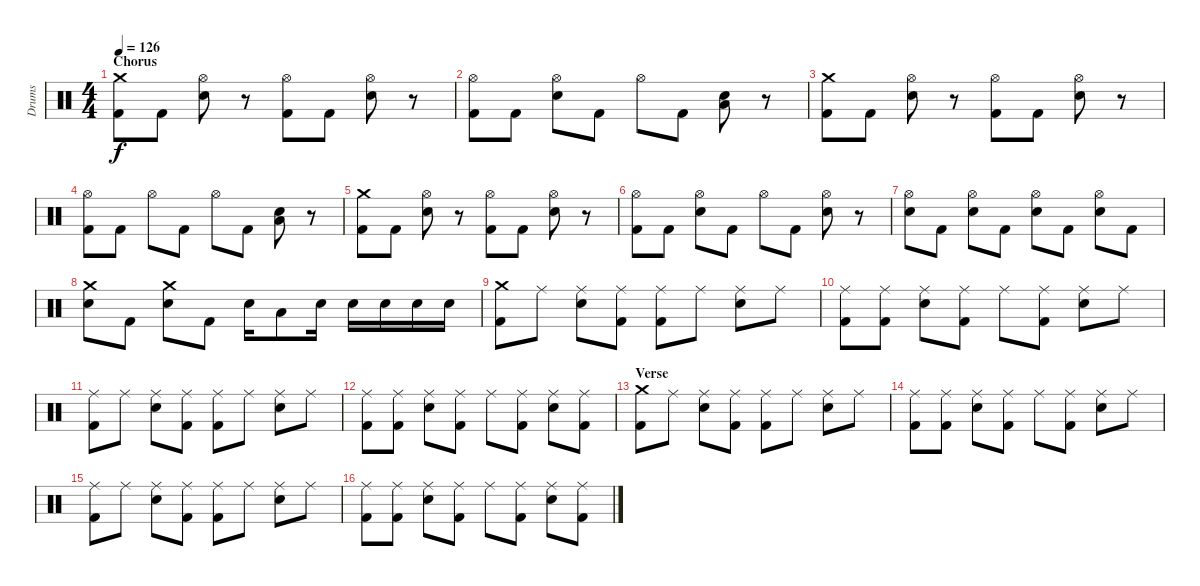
\track ("Drums" "Drums") {instrument percussion}
\staff {score}
\articulation defaults
\ts (4 4)
\section ("" "Chorus")
\tempo 126
\clef neutral
\ks c
("Crash medium (hit)" "Kick (hit) 2").8{dy f} "Kick (hit) 2".8 ("Hi-Hat (open)" "Snare (hit) 2").8 r.8 ("Hi-Hat (open)" "Kick (hit) 2").8 "Kick (hit) 2".8 ("Hi-Hat (open)" "Snare (hit) 2").8 r.8 |
("Hi-Hat (open)" "Kick (hit) 2").8 "Kick (hit) 2".8 ("Hi-Hat (open)" "Snare (hit) 2").8 "Kick (hit) 2".8 "Hi-Hat (open)".8 "Kick (hit) 2".8 ("Snare (hit) 2" "Low Tom (hit)").8 r.8 |
("Crash medium (hit)" "Kick (hit) 2").8 "Kick (hit) 2".8 ("Hi-Hat (open)" "Snare (hit) 2").8 r.8 ("Hi-Hat (open)" "Kick (hit) 2").8 "Kick (hit) 2".8 ("Hi-Hat (open)" "Snare (hit) 2").8 r.8 |
("Hi-Hat (open)" "Kick (hit) 2").8 "Kick (hit) 2".8 "Hi-Hat (open)".8 "Kick (hit) 2".8 "Hi-Hat (open)".8 "Kick (hit) 2".8 ("Snare (hit) 2" "Low Tom (hit)").8 r.8 |
("Crash medium (hit)" "Kick (hit) 2").8 "Kick (hit) 2".8 ("Hi-Hat (open)" "Snare (hit) 2").8 r.8 ("Hi-Hat (open)" "Kick (hit) 2").8 "Kick (hit) 2".8 ("Hi-Hat (open)" "Snare (hit) 2").8 r.8 |
("Hi-Hat (open)" "Kick (hit) 2").8 "Kick (hit) 2".8 ("Hi-Hat (open)" "Snare (hit) 2").8 "Kick (hit) 2".8 "Hi-Hat (open)".8 "Kick (hit) 2".8 ("Hi-Hat (open)" "Snare (hit) 2").8 r.8 |
("Hi-Hat (open)" "Snare (hit) 2").8 "Kick (hit) 2".8 ("Hi-Hat (open)" "Snare (hit) 2").8 "Kick (hit) 2".8 ("Hi-Hat (open)" "Snare (hit) 2").8 "Kick (hit) 2".8 ("Hi-Hat (open)" "Snare (hit) 2").8 "Kick (hit) 2".8 |
("Crash medium (hit)" "Snare (hit) 2").8 "Kick (hit) 2".8 ("Crash medium (hit)" "Snare (hit) 2").8 "Kick (hit) 2".8 "Snare (hit) 2".16 "Low Tom (hit)".8 "Snare (hit) 2".16 "Snare (hit) 2".16 "Snare (hit) 2".16 "Snare (hit) 2".16 "Snare (hit) 2".16 |
("Crash medium (hit)" "Kick (hit) 2").8 "Ride (middle)".8 ("Ride (middle)" "Snare (hit) 2").8 ("Ride (middle)" "Kick (hit) 2").8 ("Ride (middle)" "Kick (hit) 2").8 "Ride (middle)".8 ("Ride (middle)" "Snare (hit) 2").8 "Ride (middle)".8 |
("Ride (middle)" "Kick (hit) 2").8 ("Ride (middle)" "Kick (hit) 2").8 ("Ride (middle)" "Snare (hit) 2").8 ("Ride (middle)" "Kick (hit) 2").8 "Ride (middle)".8 ("Ride (middle)" "Kick (hit) 2").8 ("Ride (middle)" "Snare (hit) 2").8 "Ride (middle)".8 |
("Ride (middle)" "Kick (hit) 2").8 "Ride (middle)".8 ("Ride (middle)" "Snare (hit) 2").8 ("Ride (middle)" "Kick (hit) 2").8 ("Ride (middle)" "Kick (hit) 2").8 "Ride (middle)".8 ("Ride (middle)" "Snare (hit) 2").8 "Ride (middle)".8 |
("Ride (middle)" "Kick (hit) 2").8 ("Ride (middle)" "Kick (hit) 2").8 ("Ride (middle)" "Snare (hit) 2").8 ("Ride (middle)" "Kick (hit) 2").8 "Ride (middle)".8 ("Ride (middle)" "Kick (hit) 2").8 ("Ride (middle)" "Snare (hit) 2").8 ("Ride (middle)" "Kick (hit) 2").8 |
\section ("" "Verse")
("Crash medium (hit)" "Kick (hit) 2").8 "Ride (middle)".8 ("Ride (middle)" "Snare (hit) 2").8 ("Ride (middle)" "Kick (hit) 2").8 ("Ride (middle)" "Kick (hit) 2").8 "Ride (middle)".8 ("Ride (middle)" "Snare (hit) 2").8 "Ride (middle)".8 |
("Ride (middle)" "Kick (hit) 2").8 ("Ride (middle)" "Kick (hit) 2").8 ("Ride (middle)" "Snare (hit) 2").8 ("Ride (middle)" "Kick (hit) 2").8 "Ride (middle)".8 ("Ride (middle)" "Kick (hit) 2").8 ("Ride (middle)" "Snare (hit) 2").8 "Ride (middle)".8 |
("Ride (middle)" "Kick (hit) 2").8 "Ride (middle)".8 ("Ride (middle)" "Snare (hit) 2").8 ("Ride (middle)" "Kick (hit) 2").8 ("Ride (middle)" "Kick (hit) 2").8 "Ride (middle)".8 ("Ride (middle)" "Snare (hit) 2").8 "Ride (middle)".8 |
("Ride (middle)" "Kick (hit) 2").8 ("Ride (middle)" "Kick (hit) 2").8 ("Ride (middle)" "Snare (hit) 2").8 ("Ride (middle)" "Kick (hit) 2").8 "Ride (middle)".8 ("Ride (middle)" "Kick (hit) 2").8 ("Ride (middle)" "Snare (hit) 2").8 ("Ride (middle)" "Kick (hit) 2").8
